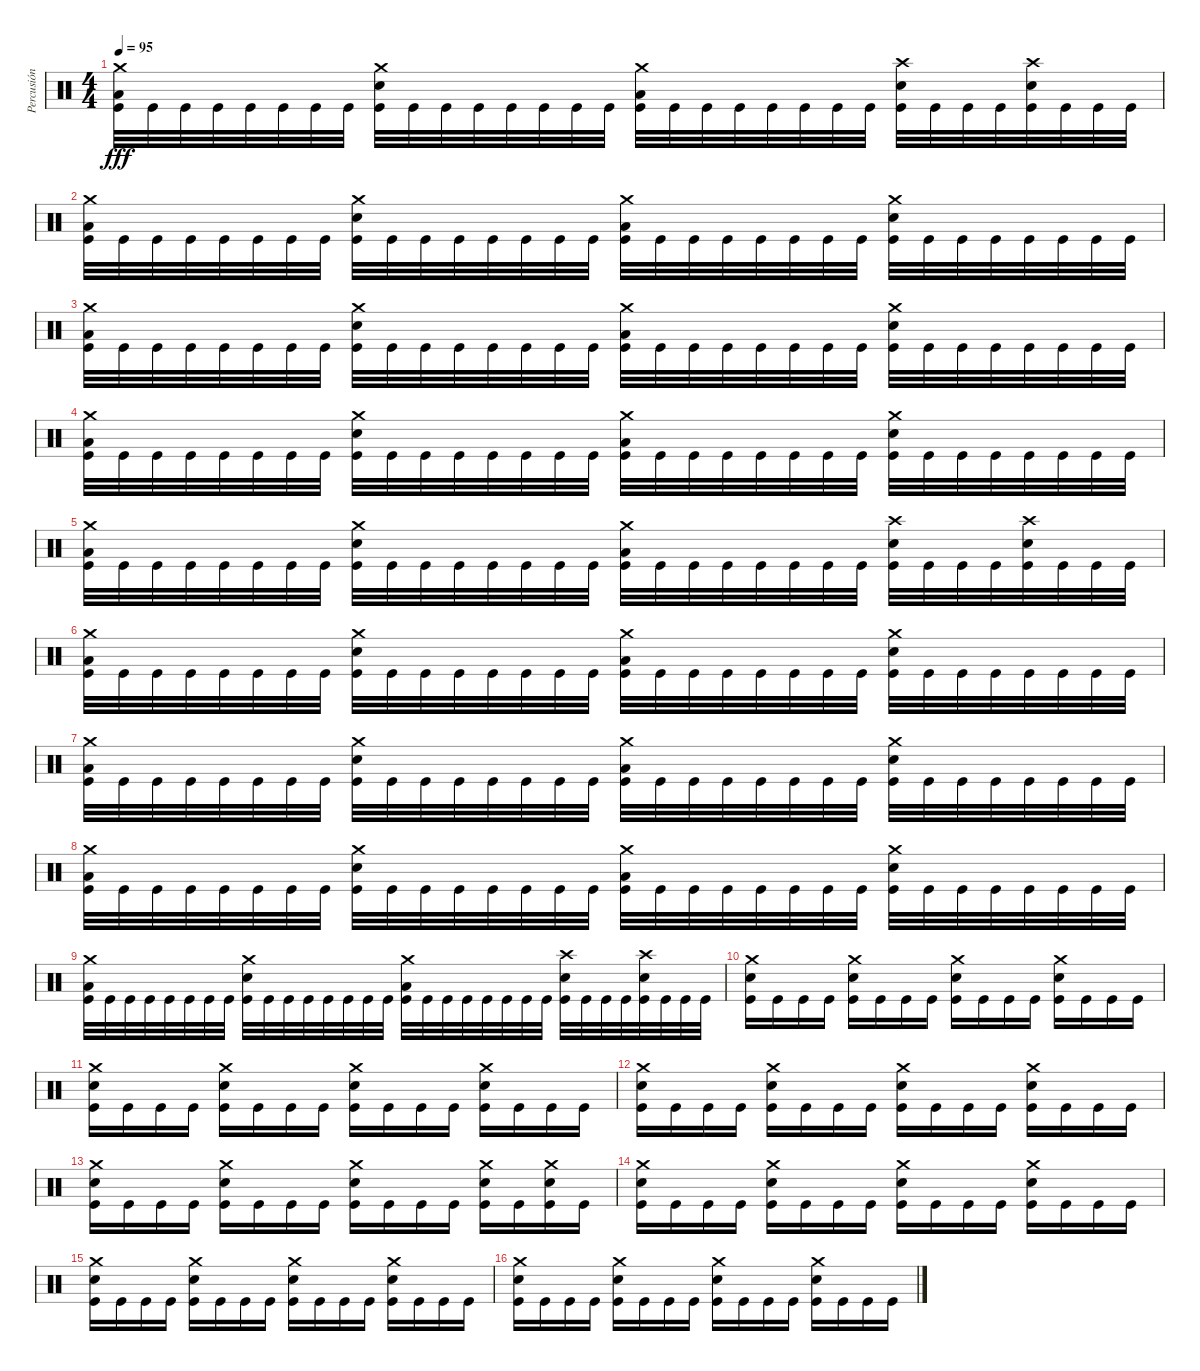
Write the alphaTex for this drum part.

\track ("Percusión" "Percusión") {instrument percussion}
\staff {score}
\articulation defaults
\ts (4 4)
\tempo 95
\clef neutral
\ks c
("Crash medium (hit)" "Low Floor Tom (hit)" "Kick (hit)").32{dy fff} "Kick (hit)".32 "Kick (hit)".32 "Kick (hit)".32 "Kick (hit)".32 "Kick (hit)".32 "Kick (hit)".32 "Kick (hit)".32 ("Crash medium (hit)" "Snare (hit) 2" "Kick (hit)").32 "Kick (hit)".32 "Kick (hit)".32 "Kick (hit)".32 "Kick (hit)".32 "Kick (hit)".32 "Kick (hit)".32 "Kick (hit)".32 ("Crash medium (hit)" "Low Floor Tom (hit)" "Kick (hit)").32 "Kick (hit)".32 "Kick (hit)".32 "Kick (hit)".32 "Kick (hit)".32 "Kick (hit)".32 "Kick (hit)".32 "Kick (hit)".32 ("Crash high (hit)" "Snare (hit) 2" "Kick (hit)").32 "Kick (hit)".32 "Kick (hit)".32 "Kick (hit)".32 ("Crash high (hit)" "Snare (hit) 2" "Kick (hit)").32 "Kick (hit)".32 "Kick (hit)".32 "Kick (hit)".32 |
("Crash medium (hit)" "Low Floor Tom (hit)" "Kick (hit)").32 "Kick (hit)".32 "Kick (hit)".32 "Kick (hit)".32 "Kick (hit)".32 "Kick (hit)".32 "Kick (hit)".32 "Kick (hit)".32 ("Crash medium (hit)" "Snare (hit) 2" "Kick (hit)").32 "Kick (hit)".32 "Kick (hit)".32 "Kick (hit)".32 "Kick (hit)".32 "Kick (hit)".32 "Kick (hit)".32 "Kick (hit)".32 ("Crash medium (hit)" "Low Floor Tom (hit)" "Kick (hit)").32 "Kick (hit)".32 "Kick (hit)".32 "Kick (hit)".32 "Kick (hit)".32 "Kick (hit)".32 "Kick (hit)".32 "Kick (hit)".32 ("Crash medium (hit)" "Snare (hit) 2" "Kick (hit)").32 "Kick (hit)".32 "Kick (hit)".32 "Kick (hit)".32 "Kick (hit)".32 "Kick (hit)".32 "Kick (hit)".32 "Kick (hit)".32 |
("Crash medium (hit)" "Low Floor Tom (hit)" "Kick (hit)").32 "Kick (hit)".32 "Kick (hit)".32 "Kick (hit)".32 "Kick (hit)".32 "Kick (hit)".32 "Kick (hit)".32 "Kick (hit)".32 ("Crash medium (hit)" "Snare (hit) 2" "Kick (hit)").32 "Kick (hit)".32 "Kick (hit)".32 "Kick (hit)".32 "Kick (hit)".32 "Kick (hit)".32 "Kick (hit)".32 "Kick (hit)".32 ("Crash medium (hit)" "Low Floor Tom (hit)" "Kick (hit)").32 "Kick (hit)".32 "Kick (hit)".32 "Kick (hit)".32 "Kick (hit)".32 "Kick (hit)".32 "Kick (hit)".32 "Kick (hit)".32 ("Crash medium (hit)" "Snare (hit) 2" "Kick (hit)").32 "Kick (hit)".32 "Kick (hit)".32 "Kick (hit)".32 "Kick (hit)".32 "Kick (hit)".32 "Kick (hit)".32 "Kick (hit)".32 |
("Crash medium (hit)" "Low Floor Tom (hit)" "Kick (hit)").32 "Kick (hit)".32 "Kick (hit)".32 "Kick (hit)".32 "Kick (hit)".32 "Kick (hit)".32 "Kick (hit)".32 "Kick (hit)".32 ("Crash medium (hit)" "Snare (hit) 2" "Kick (hit)").32 "Kick (hit)".32 "Kick (hit)".32 "Kick (hit)".32 "Kick (hit)".32 "Kick (hit)".32 "Kick (hit)".32 "Kick (hit)".32 ("Crash medium (hit)" "Low Floor Tom (hit)" "Kick (hit)").32 "Kick (hit)".32 "Kick (hit)".32 "Kick (hit)".32 "Kick (hit)".32 "Kick (hit)".32 "Kick (hit)".32 "Kick (hit)".32 ("Crash medium (hit)" "Snare (hit) 2" "Kick (hit)").32 "Kick (hit)".32 "Kick (hit)".32 "Kick (hit)".32 "Kick (hit)".32 "Kick (hit)".32 "Kick (hit)".32 "Kick (hit)".32 |
("Crash medium (hit)" "Low Floor Tom (hit)" "Kick (hit)").32 "Kick (hit)".32 "Kick (hit)".32 "Kick (hit)".32 "Kick (hit)".32 "Kick (hit)".32 "Kick (hit)".32 "Kick (hit)".32 ("Crash medium (hit)" "Snare (hit) 2" "Kick (hit)").32 "Kick (hit)".32 "Kick (hit)".32 "Kick (hit)".32 "Kick (hit)".32 "Kick (hit)".32 "Kick (hit)".32 "Kick (hit)".32 ("Crash medium (hit)" "Low Floor Tom (hit)" "Kick (hit)").32 "Kick (hit)".32 "Kick (hit)".32 "Kick (hit)".32 "Kick (hit)".32 "Kick (hit)".32 "Kick (hit)".32 "Kick (hit)".32 ("Crash high (hit)" "Snare (hit) 2" "Kick (hit)").32 "Kick (hit)".32 "Kick (hit)".32 "Kick (hit)".32 ("Crash high (hit)" "Snare (hit) 2" "Kick (hit)").32 "Kick (hit)".32 "Kick (hit)".32 "Kick (hit)".32 |
("Crash medium (hit)" "Low Floor Tom (hit)" "Kick (hit)").32 "Kick (hit)".32 "Kick (hit)".32 "Kick (hit)".32 "Kick (hit)".32 "Kick (hit)".32 "Kick (hit)".32 "Kick (hit)".32 ("Crash medium (hit)" "Snare (hit) 2" "Kick (hit)").32 "Kick (hit)".32 "Kick (hit)".32 "Kick (hit)".32 "Kick (hit)".32 "Kick (hit)".32 "Kick (hit)".32 "Kick (hit)".32 ("Crash medium (hit)" "Low Floor Tom (hit)" "Kick (hit)").32 "Kick (hit)".32 "Kick (hit)".32 "Kick (hit)".32 "Kick (hit)".32 "Kick (hit)".32 "Kick (hit)".32 "Kick (hit)".32 ("Crash medium (hit)" "Snare (hit) 2" "Kick (hit)").32 "Kick (hit)".32 "Kick (hit)".32 "Kick (hit)".32 "Kick (hit)".32 "Kick (hit)".32 "Kick (hit)".32 "Kick (hit)".32 |
("Crash medium (hit)" "Low Floor Tom (hit)" "Kick (hit)").32 "Kick (hit)".32 "Kick (hit)".32 "Kick (hit)".32 "Kick (hit)".32 "Kick (hit)".32 "Kick (hit)".32 "Kick (hit)".32 ("Crash medium (hit)" "Snare (hit) 2" "Kick (hit)").32 "Kick (hit)".32 "Kick (hit)".32 "Kick (hit)".32 "Kick (hit)".32 "Kick (hit)".32 "Kick (hit)".32 "Kick (hit)".32 ("Crash medium (hit)" "Low Floor Tom (hit)" "Kick (hit)").32 "Kick (hit)".32 "Kick (hit)".32 "Kick (hit)".32 "Kick (hit)".32 "Kick (hit)".32 "Kick (hit)".32 "Kick (hit)".32 ("Crash medium (hit)" "Snare (hit) 2" "Kick (hit)").32 "Kick (hit)".32 "Kick (hit)".32 "Kick (hit)".32 "Kick (hit)".32 "Kick (hit)".32 "Kick (hit)".32 "Kick (hit)".32 |
("Crash medium (hit)" "Low Floor Tom (hit)" "Kick (hit)").32 "Kick (hit)".32 "Kick (hit)".32 "Kick (hit)".32 "Kick (hit)".32 "Kick (hit)".32 "Kick (hit)".32 "Kick (hit)".32 ("Crash medium (hit)" "Snare (hit) 2" "Kick (hit)").32 "Kick (hit)".32 "Kick (hit)".32 "Kick (hit)".32 "Kick (hit)".32 "Kick (hit)".32 "Kick (hit)".32 "Kick (hit)".32 ("Crash medium (hit)" "Low Floor Tom (hit)" "Kick (hit)").32 "Kick (hit)".32 "Kick (hit)".32 "Kick (hit)".32 "Kick (hit)".32 "Kick (hit)".32 "Kick (hit)".32 "Kick (hit)".32 ("Crash medium (hit)" "Snare (hit) 2" "Kick (hit)").32 "Kick (hit)".32 "Kick (hit)".32 "Kick (hit)".32 "Kick (hit)".32 "Kick (hit)".32 "Kick (hit)".32 "Kick (hit)".32 |
("Crash medium (hit)" "Low Floor Tom (hit)" "Kick (hit)").32 "Kick (hit)".32 "Kick (hit)".32 "Kick (hit)".32 "Kick (hit)".32 "Kick (hit)".32 "Kick (hit)".32 "Kick (hit)".32 ("Crash medium (hit)" "Snare (hit) 2" "Kick (hit)").32 "Kick (hit)".32 "Kick (hit)".32 "Kick (hit)".32 "Kick (hit)".32 "Kick (hit)".32 "Kick (hit)".32 "Kick (hit)".32 ("Crash medium (hit)" "Low Floor Tom (hit)" "Kick (hit)").32 "Kick (hit)".32 "Kick (hit)".32 "Kick (hit)".32 "Kick (hit)".32 "Kick (hit)".32 "Kick (hit)".32 "Kick (hit)".32 ("Crash high (hit)" "Snare (hit) 2" "Kick (hit)").32 "Kick (hit)".32 "Kick (hit)".32 "Kick (hit)".32 ("Crash high (hit)" "Snare (hit) 2" "Kick (hit)").32 "Kick (hit)".32 "Kick (hit)".32 "Kick (hit)".32 |
("Crash medium (hit)" "Snare (hit) 2" "Kick (hit)").16 "Kick (hit)".16 "Kick (hit)".16 "Kick (hit)".16 ("Crash medium (hit)" "Snare (hit) 2" "Kick (hit)").16 "Kick (hit)".16 "Kick (hit)".16 "Kick (hit)".16 ("Crash medium (hit)" "Snare (hit) 2" "Kick (hit)").16 "Kick (hit)".16 "Kick (hit)".16 "Kick (hit)".16 ("Crash medium (hit)" "Snare (hit) 2" "Kick (hit)").16 "Kick (hit)".16 "Kick (hit)".16 "Kick (hit)".16 |
("Crash medium (hit)" "Snare (hit) 2" "Kick (hit)").16 "Kick (hit)".16 "Kick (hit)".16 "Kick (hit)".16 ("Crash medium (hit)" "Snare (hit) 2" "Kick (hit)").16 "Kick (hit)".16 "Kick (hit)".16 "Kick (hit)".16 ("Crash medium (hit)" "Snare (hit) 2" "Kick (hit)").16 "Kick (hit)".16 "Kick (hit)".16 "Kick (hit)".16 ("Crash medium (hit)" "Snare (hit) 2" "Kick (hit)").16 "Kick (hit)".16 "Kick (hit)".16 "Kick (hit)".16 |
("Crash medium (hit)" "Snare (hit) 2" "Kick (hit)").16 "Kick (hit)".16 "Kick (hit)".16 "Kick (hit)".16 ("Crash medium (hit)" "Snare (hit) 2" "Kick (hit)").16 "Kick (hit)".16 "Kick (hit)".16 "Kick (hit)".16 ("Crash medium (hit)" "Snare (hit) 2" "Kick (hit)").16 "Kick (hit)".16 "Kick (hit)".16 "Kick (hit)".16 ("Crash medium (hit)" "Snare (hit) 2" "Kick (hit)").16 "Kick (hit)".16 "Kick (hit)".16 "Kick (hit)".16 |
("Crash medium (hit)" "Snare (hit) 2" "Kick (hit)").16 "Kick (hit)".16 "Kick (hit)".16 "Kick (hit)".16 ("Crash medium (hit)" "Snare (hit) 2" "Kick (hit)").16 "Kick (hit)".16 "Kick (hit)".16 "Kick (hit)".16 ("Crash medium (hit)" "Snare (hit) 2" "Kick (hit)").16 "Kick (hit)".16 "Kick (hit)".16 "Kick (hit)".16 ("Crash medium (hit)" "Snare (hit) 2" "Kick (hit)").16 "Kick (hit)".16 ("Crash medium (hit)" "Snare (hit) 2" "Kick (hit)").16 "Kick (hit)".16 |
("Crash medium (hit)" "Snare (hit) 2" "Kick (hit)").16 "Kick (hit)".16 "Kick (hit)".16 "Kick (hit)".16 ("Crash medium (hit)" "Snare (hit) 2" "Kick (hit)").16 "Kick (hit)".16 "Kick (hit)".16 "Kick (hit)".16 ("Crash medium (hit)" "Snare (hit) 2" "Kick (hit)").16 "Kick (hit)".16 "Kick (hit)".16 "Kick (hit)".16 ("Crash medium (hit)" "Snare (hit) 2" "Kick (hit)").16 "Kick (hit)".16 "Kick (hit)".16 "Kick (hit)".16 |
("Crash medium (hit)" "Snare (hit) 2" "Kick (hit)").16 "Kick (hit)".16 "Kick (hit)".16 "Kick (hit)".16 ("Crash medium (hit)" "Snare (hit) 2" "Kick (hit)").16 "Kick (hit)".16 "Kick (hit)".16 "Kick (hit)".16 ("Crash medium (hit)" "Snare (hit) 2" "Kick (hit)").16 "Kick (hit)".16 "Kick (hit)".16 "Kick (hit)".16 ("Crash medium (hit)" "Snare (hit) 2" "Kick (hit)").16 "Kick (hit)".16 "Kick (hit)".16 "Kick (hit)".16 |
("Crash medium (hit)" "Snare (hit) 2" "Kick (hit)").16 "Kick (hit)".16 "Kick (hit)".16 "Kick (hit)".16 ("Crash medium (hit)" "Snare (hit) 2" "Kick (hit)").16 "Kick (hit)".16 "Kick (hit)".16 "Kick (hit)".16 ("Crash medium (hit)" "Snare (hit) 2" "Kick (hit)").16 "Kick (hit)".16 "Kick (hit)".16 "Kick (hit)".16 ("Crash medium (hit)" "Snare (hit) 2" "Kick (hit)").16 "Kick (hit)".16 "Kick (hit)".16 "Kick (hit)".16
